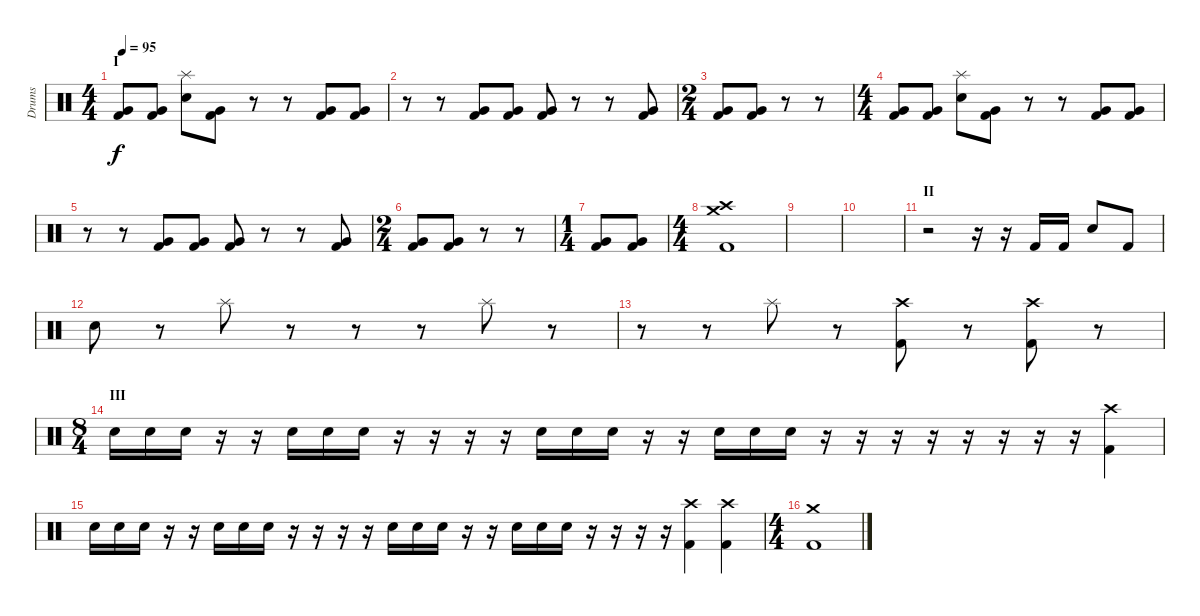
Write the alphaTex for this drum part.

\track ("Drums" "Drums") {instrument percussion}
\staff {score}
\articulation defaults
\ts (4 4)
\section ("" "I")
\tempo 95
\clef neutral
\ks c
("Kick (hit) 2" "Very Low Tom (hit)").8{dy f} ("Kick (hit) 2" "Very Low Tom (hit)").8 ("Splash (hit)" "Electric Snare (hit)").8 ("Kick (hit) 2" "Very Low Tom (hit)").8 r.8 r.8 ("Very Low Tom (hit)" "Kick (hit) 2").8 ("Very Low Tom (hit)" "Kick (hit) 2").8 |
r.8 r.8 ("Very Low Tom (hit)" "Kick (hit) 2").8 ("Very Low Tom (hit)" "Kick (hit) 2").8 ("Very Low Tom (hit)" "Kick (hit) 2").8 r.8 r.8 ("Very Low Tom (hit)" "Kick (hit) 2").8 |
\ts (2 4)
("Very Low Tom (hit)" "Kick (hit) 2").8 ("Very Low Tom (hit)" "Kick (hit) 2").8 r.8 r.8 |
\ts (4 4)
("Kick (hit) 2" "Very Low Tom (hit)").8 ("Kick (hit) 2" "Very Low Tom (hit)").8 ("Splash (hit)" "Electric Snare (hit)").8 ("Kick (hit) 2" "Very Low Tom (hit)").8 r.8 r.8 ("Very Low Tom (hit)" "Kick (hit) 2").8 ("Very Low Tom (hit)" "Kick (hit) 2").8 |
r.8 r.8 ("Very Low Tom (hit)" "Kick (hit) 2").8 ("Very Low Tom (hit)" "Kick (hit) 2").8 ("Very Low Tom (hit)" "Kick (hit) 2").8 r.8 r.8 ("Very Low Tom (hit)" "Kick (hit) 2").8 |
\ts (2 4)
("Very Low Tom (hit)" "Kick (hit) 2").8 ("Very Low Tom (hit)" "Kick (hit) 2").8 r.8 r.8 |
\ts (1 4)
("Very Low Tom (hit)" "Kick (hit) 2").8 ("Very Low Tom (hit)" "Kick (hit) 2").8 |
\ts (4 4)
("Crash high (hit)" "Crash medium (hit)" "Kick (hit) 2").1 |
|
|
\section ("" "II")
r.2 r.16 r.16 "Kick (hit) 2".16 "Kick (hit) 2".16 "Electric Snare (hit)".8 "Kick (hit) 2".8 |
"Electric Snare (hit)".8 r.8 "Splash (hit)".8 r.8 r.8 r.8 "Splash (hit)".8 r.8 |
r.8 r.8 "Splash (hit)".8 r.8 ("Crash high (hit)" "Kick (hit) 2").8 r.8 ("Crash high (hit)" "Kick (hit) 2").8 r.8 |
\ts (8 4)
\section ("" "III")
"Electric Snare (hit)".16 "Electric Snare (hit)".16 "Electric Snare (hit)".16 r.16 r.16 "Electric Snare (hit)".16 "Electric Snare (hit)".16 "Electric Snare (hit)".16 r.16 r.16 r.16 r.16 "Electric Snare (hit)".16 "Electric Snare (hit)".16 "Electric Snare (hit)".16 r.16 r.16 "Electric Snare (hit)".16 "Electric Snare (hit)".16 "Electric Snare (hit)".16 r.16 r.16 r.16 r.16 r.16 r.16 r.16 r.16 ("Crash high (hit)" "Kick (hit) 2").4 |
"Electric Snare (hit)".16 "Electric Snare (hit)".16 "Electric Snare (hit)".16 r.16 r.16 "Electric Snare (hit)".16 "Electric Snare (hit)".16 "Electric Snare (hit)".16 r.16 r.16 r.16 r.16 "Electric Snare (hit)".16 "Electric Snare (hit)".16 "Electric Snare (hit)".16 r.16 r.16 "Electric Snare (hit)".16 "Electric Snare (hit)".16 "Electric Snare (hit)".16 r.16 r.16 r.16 r.16 ("Crash high (hit)" "Kick (hit) 2").4 ("Crash high (hit)" "Kick (hit) 2").4 |
\ts (4 4)
("Crash medium (hit)" "Kick (hit) 2").1
